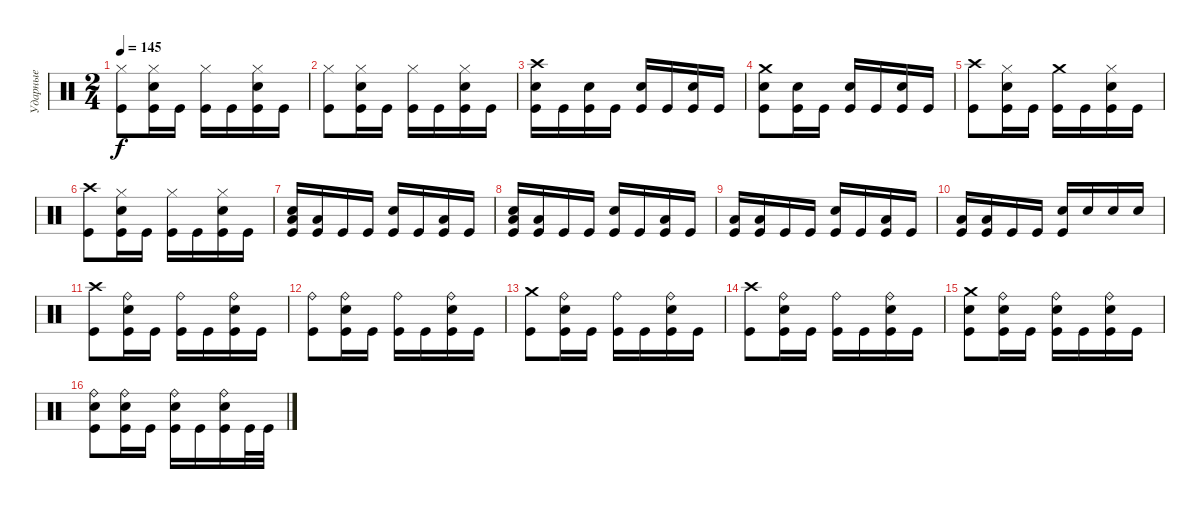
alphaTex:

\track ("Ударные" "Ударные") {instrument percussion}
\staff {score}
\articulation defaults
\ts (2 4)
\tempo 145
\clef neutral
\ks c
("Hi-Hat (closed)" "Kick (hit)").8{dy f} ("Hi-Hat (closed)" "Electric Snare (hit)" "Kick (hit)").16 "Kick (hit)".16 ("Hi-Hat (closed)" "Kick (hit)").16 "Kick (hit)".16 ("Hi-Hat (closed)" "Electric Snare (hit)" "Kick (hit)").16 "Kick (hit)".16 |
("Hi-Hat (closed)" "Kick (hit)").8 ("Hi-Hat (closed)" "Electric Snare (hit)" "Kick (hit)").16 "Kick (hit)".16 ("Hi-Hat (closed)" "Kick (hit)").16 "Kick (hit)".16 ("Hi-Hat (closed)" "Electric Snare (hit)" "Kick (hit)").16 "Kick (hit)".16 |
("Crash high (hit)" "Electric Snare (hit)" "Kick (hit)").16 "Kick (hit)".16 ("Electric Snare (hit)" "Kick (hit)").16 "Kick (hit)".16 ("Electric Snare (hit)" "Kick (hit)").16 "Kick (hit)".16 ("Electric Snare (hit)" "Kick (hit)").16 "Kick (hit)".16 |
("Crash medium (hit)" "Electric Snare (hit)" "Kick (hit)").8 ("Electric Snare (hit)" "Kick (hit)").16 "Kick (hit)".16 ("Electric Snare (hit)" "Kick (hit)").16 "Kick (hit)".16 ("Electric Snare (hit)" "Kick (hit)").16 "Kick (hit)".16 |
("Crash high (hit)" "Kick (hit)").8 ("Hi-Hat (closed)" "Electric Snare (hit)" "Kick (hit)").16 "Kick (hit)".16 ("Crash medium (hit)" "Kick (hit)").16 "Kick (hit)".16 ("Hi-Hat (closed)" "Electric Snare (hit)" "Kick (hit)").16 "Kick (hit)".16 |
("Crash high (hit)" "Kick (hit)").8 ("Hi-Hat (closed)" "Electric Snare (hit)" "Kick (hit)").16 "Kick (hit)".16 ("Hi-Hat (closed)" "Kick (hit)").16 "Kick (hit)".16 ("Hi-Hat (closed)" "Electric Snare (hit)" "Kick (hit)").16 "Kick (hit)".16 |
("Electric Snare (hit)" "Low Tom (hit)" "Kick (hit)").16 ("Low Tom (hit)" "Kick (hit)").16 "Kick (hit)".16 "Kick (hit)".16 ("Electric Snare (hit)" "Kick (hit)").16 "Kick (hit)".16 ("Low Tom (hit)" "Kick (hit)").16 "Kick (hit)".16 |
("Electric Snare (hit)" "Low Tom (hit)" "Kick (hit)").16 ("Low Tom (hit)" "Kick (hit)").16 "Kick (hit)".16 "Kick (hit)".16 ("Electric Snare (hit)" "Kick (hit)").16 "Kick (hit)".16 ("Low Tom (hit)" "Kick (hit)").16 "Kick (hit)".16 |
("Low Tom (hit)" "Kick (hit)").16 ("Low Tom (hit)" "Kick (hit)").16 "Kick (hit)".16 "Kick (hit)".16 ("Electric Snare (hit)" "Kick (hit)").16 "Kick (hit)".16 ("Low Tom (hit)" "Kick (hit)").16 "Kick (hit)".16 |
("Low Tom (hit)" "Kick (hit)").16 ("Low Tom (hit)" "Kick (hit)").16 "Kick (hit)".16 "Kick (hit)".16 ("Electric Snare (hit)" "Kick (hit)").16 "Electric Snare (hit)".16 "Electric Snare (hit)".16 "Electric Snare (hit)".16 |
("Crash high (hit)" "Kick (hit)").8 ("Ride (bell)" "Electric Snare (hit)" "Kick (hit)").16 "Kick (hit)".16 ("Ride (bell)" "Kick (hit)").16 "Kick (hit)".16 ("Ride (bell)" "Electric Snare (hit)" "Kick (hit)").16 "Kick (hit)".16 |
("Ride (bell)" "Kick (hit)").8 ("Ride (bell)" "Electric Snare (hit)" "Kick (hit)").16 "Kick (hit)".16 ("Ride (bell)" "Kick (hit)").16 "Kick (hit)".16 ("Ride (bell)" "Electric Snare (hit)" "Kick (hit)").16 "Kick (hit)".16 |
("Crash medium (hit)" "Kick (hit)").8 ("Ride (bell)" "Electric Snare (hit)" "Kick (hit)").16 "Kick (hit)".16 ("Ride (bell)" "Kick (hit)").16 "Kick (hit)".16 ("Ride (bell)" "Electric Snare (hit)" "Kick (hit)").16 "Kick (hit)".16 |
("Crash high (hit)" "Kick (hit)").8 ("Ride (bell)" "Electric Snare (hit)" "Kick (hit)").16 "Kick (hit)".16 ("Ride (bell)" "Kick (hit)").16 "Kick (hit)".16 ("Ride (bell)" "Electric Snare (hit)" "Kick (hit)").16 "Kick (hit)".16 |
("Crash medium (hit)" "Electric Snare (hit)" "Kick (hit)").8 ("Ride (bell)" "Electric Snare (hit)" "Kick (hit)").16 "Kick (hit)".16 ("Ride (bell)" "Electric Snare (hit)" "Kick (hit)").16 "Kick (hit)".16 ("Ride (bell)" "Electric Snare (hit)" "Kick (hit)").16 "Kick (hit)".16 |
("Ride (bell)" "Electric Snare (hit)" "Kick (hit)").8 ("Ride (bell)" "Electric Snare (hit)" "Kick (hit)").16 "Kick (hit)".16 ("Ride (bell)" "Electric Snare (hit)" "Kick (hit)").16 "Kick (hit)".16 ("Ride (bell)" "Electric Snare (hit)" "Kick (hit)").16 "Kick (hit)".32 "Kick (hit)".32
